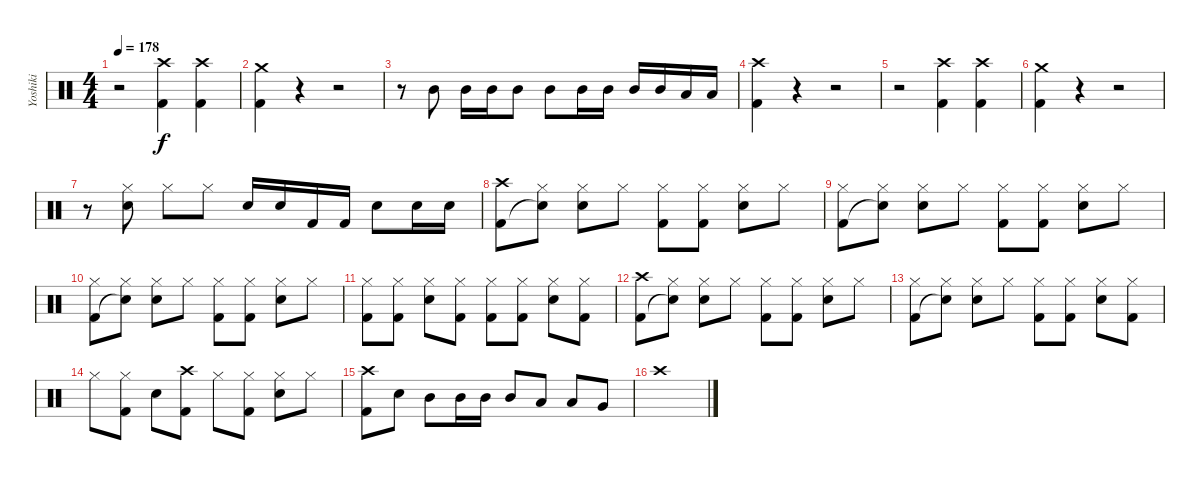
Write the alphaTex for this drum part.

\track ("Yoshiki" "Yoshiki") {instrument percussion}
\staff {score}
\articulation defaults
\ts (4 4)
\tempo 178
\clef neutral
\ks c
r.2{dy f} ("Crash high (hit)" "Kick (hit) 2").4 ("Crash high (hit)" "Kick (hit) 2").4 |
("Crash medium (hit)" "Kick (hit) 2").4 r.4 r.2 |
r.8 "Mid Tom (hit)".8 "Mid Tom (hit)".16 "Mid Tom (hit)".16 "Mid Tom (hit)".8 "Mid Tom (hit)".8 "Mid Tom (hit)".16 "Mid Tom (hit)".16 "Mid Tom (hit)".16 "Mid Tom (hit)".16 "Low Tom (hit)".16 "Low Tom (hit)".16 |
("Crash high (hit)" "Kick (hit) 2").4 r.4 r.2 |
r.2 ("Crash high (hit)" "Kick (hit) 2").4 ("Crash high (hit)" "Kick (hit) 2").4 |
("Crash medium (hit)" "Kick (hit) 2").4 r.4 r.2 |
r.8 ("Hi-Hat (closed)" "Snare (hit) 2").8 "Hi-Hat (closed)".8 "Hi-Hat (closed)".8 "Snare (hit) 2".16 "Snare (hit) 2".16 "Kick (hit) 2".16 "Kick (hit) 2".16 "Snare (hit) 2".8 "Snare (hit) 2".16 "Snare (hit) 2".16 |
("Crash high (hit)" "Kick (hit) 2").8 ("Hi-Hat (closed)" "Snare (hit)"{t}).8 ("Hi-Hat (closed)" "Snare (hit) 2").8 "Hi-Hat (closed)".8 ("Hi-Hat (closed)" "Kick (hit) 2").8 ("Hi-Hat (closed)" "Kick (hit) 2").8 ("Hi-Hat (closed)" "Snare (hit) 2").8 "Hi-Hat (closed)".8 |
("Hi-Hat (closed)" "Kick (hit) 2").8 ("Hi-Hat (closed)" "Snare (hit)"{t}).8 ("Hi-Hat (closed)" "Snare (hit) 2").8 "Hi-Hat (closed)".8 ("Hi-Hat (closed)" "Kick (hit) 2").8 ("Hi-Hat (closed)" "Kick (hit) 2").8 ("Hi-Hat (closed)" "Snare (hit) 2").8 "Hi-Hat (closed)".8 |
("Hi-Hat (closed)" "Kick (hit) 2").8 ("Hi-Hat (closed)" "Snare (hit)"{t}).8 ("Hi-Hat (closed)" "Snare (hit) 2").8 "Hi-Hat (closed)".8 ("Hi-Hat (closed)" "Kick (hit) 2").8 ("Hi-Hat (closed)" "Kick (hit) 2").8 ("Hi-Hat (closed)" "Snare (hit) 2").8 "Hi-Hat (closed)".8 |
("Hi-Hat (closed)" "Kick (hit) 2").8 ("Hi-Hat (closed)" "Kick (hit) 2").8 ("Hi-Hat (closed)" "Snare (hit) 2").8 ("Hi-Hat (closed)" "Kick (hit) 2").8 ("Hi-Hat (closed)" "Kick (hit) 2").8 ("Hi-Hat (closed)" "Kick (hit) 2").8 ("Hi-Hat (closed)" "Snare (hit) 2").8 ("Hi-Hat (closed)" "Kick (hit) 2").8 |
("Crash high (hit)" "Kick (hit) 2").8 ("Hi-Hat (closed)" "Snare (hit)"{t}).8 ("Hi-Hat (closed)" "Snare (hit) 2").8 "Hi-Hat (closed)".8 ("Hi-Hat (closed)" "Kick (hit) 2").8 ("Hi-Hat (closed)" "Kick (hit) 2").8 ("Hi-Hat (closed)" "Snare (hit) 2").8 "Hi-Hat (closed)".8 |
("Hi-Hat (closed)" "Kick (hit) 2").8 ("Hi-Hat (closed)" "Snare (hit)"{t}).8 ("Hi-Hat (closed)" "Snare (hit) 2").8 "Hi-Hat (closed)".8 ("Hi-Hat (closed)" "Kick (hit) 2").8 ("Hi-Hat (closed)" "Kick (hit) 2").8 ("Hi-Hat (closed)" "Snare (hit) 2").8 ("Hi-Hat (closed)" "Kick (hit) 2").8 |
"Hi-Hat (closed)".8 ("Hi-Hat (closed)" "Kick (hit) 2").8 "Snare (hit) 2".8 ("Crash high (hit)" "Kick (hit) 2").8 "Hi-Hat (closed)".8 ("Hi-Hat (closed)" "Kick (hit) 2").8 ("Hi-Hat (closed)" "Snare (hit) 2").8 "Hi-Hat (closed)".8 |
("Crash high (hit)" "Kick (hit) 2").8 "Snare (hit) 2".8 "Mid Tom (hit)".8 "Mid Tom (hit)".16 "Mid Tom (hit)".16 "Mid Tom (hit)".8 "Low Tom (hit)".8 "Low Tom (hit)".8 "Very Low Tom (hit)".8 |
"Crash high (hit)".1
